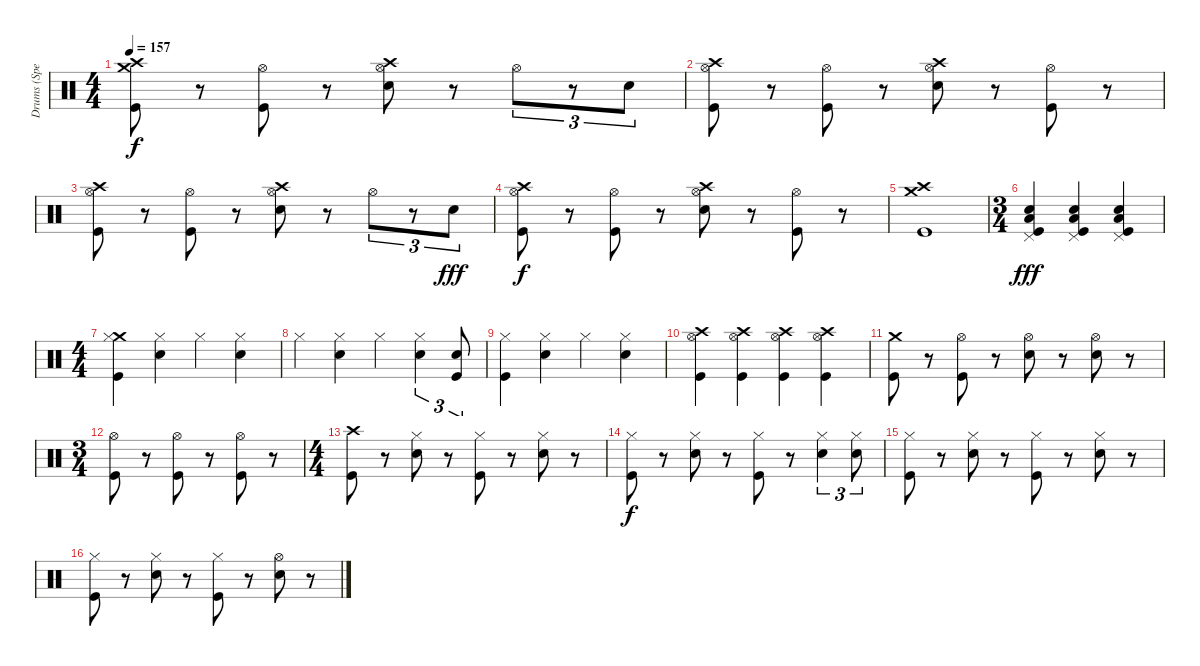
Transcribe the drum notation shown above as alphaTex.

\track ("Drums (Spencer Smith)" "Drums (Spe") {instrument percussion}
\staff {score}
\articulation defaults
\ts (4 4)
\tempo 157
\clef neutral
\ks c
("Crash medium (hit)" "Crash high (hit)" "Kick (hit)").8{dy f} r.8 ("Hi-Hat (open)" "Kick (hit)").8 r.8 ("Hi-Hat (open)" "Crash high (hit)" "Electric Snare (hit)").8 r.8 "Hi-Hat (open)".8{tu (3 2)} r.8{tu (3 2)} "Electric Snare (hit)".8{tu (3 2)} |
("Hi-Hat (open)" "Crash high (hit)" "Kick (hit)").8 r.8 ("Hi-Hat (open)" "Kick (hit)").8 r.8 ("Hi-Hat (open)" "Crash high (hit)" "Electric Snare (hit)").8 r.8 ("Hi-Hat (open)" "Kick (hit)").8 r.8 |
("Hi-Hat (open)" "Crash high (hit)" "Kick (hit)").8 r.8 ("Hi-Hat (open)" "Kick (hit)").8 r.8 ("Hi-Hat (open)" "Crash high (hit)" "Electric Snare (hit)").8 r.8 "Hi-Hat (open)".8{tu (3 2)} r.8{tu (3 2)} "Electric Snare (hit)".8{tu (3 2) dy fff} |
("Hi-Hat (open)" "Crash high (hit)" "Kick (hit)").8{dy f} r.8 ("Hi-Hat (open)" "Kick (hit)").8 r.8 ("Hi-Hat (open)" "Crash high (hit)" "Electric Snare (hit)").8 r.8 ("Hi-Hat (open)" "Kick (hit)").8 r.8 |
("Crash medium (hit)" "Crash high (hit)" "Kick (hit)").1 |
\ts (3 4)
("Low Floor Tom (hit)" "Electric Snare (hit)" "Kick (hit)" "Pedal Hi-Hat (hit)").4{dy fff} ("Low Floor Tom (hit)" "Electric Snare (hit)" "Kick (hit)" "Pedal Hi-Hat (hit)").4 ("Low Floor Tom (hit)" "Electric Snare (hit)" "Kick (hit)" "Pedal Hi-Hat (hit)").4 |
\ts (4 4)
("Crash medium (hit)" "Hi-Hat (closed)" "Kick (hit)").4 ("Hi-Hat (closed)" "Electric Snare (hit)").4 "Hi-Hat (closed)".4 ("Hi-Hat (closed)" "Electric Snare (hit)").4 |
"Hi-Hat (closed)".4 ("Hi-Hat (closed)" "Electric Snare (hit)").4 "Hi-Hat (closed)".4 ("Hi-Hat (closed)" "Electric Snare (hit)").4{tu (3 2)} ("Electric Snare (hit)" "Kick (hit)").8{tu (3 2)} |
("Hi-Hat (closed)" "Kick (hit)").4 ("Hi-Hat (closed)" "Electric Snare (hit)").4 "Hi-Hat (closed)".4 ("Hi-Hat (closed)" "Electric Snare (hit)").4 |
("Hi-Hat (open)" "Crash high (hit)" "Kick (hit)").4 ("Hi-Hat (open)" "Crash high (hit)" "Kick (hit)").4 ("Hi-Hat (open)" "Crash high (hit)" "Kick (hit)").4 ("Hi-Hat (open)" "Crash high (hit)" "Kick (hit)").4 |
("Crash medium (hit)" "Kick (hit)").8 r.8 ("Hi-Hat (open)" "Kick (hit)").8 r.8 ("Hi-Hat (open)" "Electric Snare (hit)").8 r.8 ("Hi-Hat (open)" "Electric Snare (hit)").8 r.8 |
\ts (3 4)
("Hi-Hat (open)" "Kick (hit)").8 r.8 ("Hi-Hat (open)" "Kick (hit)").8 r.8 ("Hi-Hat (open)" "Kick (hit)").8 r.8 |
\ts (4 4)
("Crash high (hit)" "Kick (hit)").8 r.8 ("Hi-Hat (closed)" "Electric Snare (hit)").8 r.8 ("Hi-Hat (closed)" "Kick (hit)").8 r.8 ("Hi-Hat (closed)" "Electric Snare (hit)").8 r.8 |
("Hi-Hat (closed)" "Kick (hit)").8{dy f} r.8 ("Hi-Hat (closed)" "Electric Snare (hit)").8 r.8 ("Hi-Hat (closed)" "Kick (hit)").8 r.8 ("Hi-Hat (closed)" "Electric Snare (hit)").4{tu (3 2)} ("Hi-Hat (closed)" "Electric Snare (hit)").8{tu (3 2)} |
("Hi-Hat (closed)" "Kick (hit)").8 r.8 ("Hi-Hat (closed)" "Electric Snare (hit)").8 r.8 ("Hi-Hat (closed)" "Kick (hit)").8 r.8 ("Hi-Hat (closed)" "Electric Snare (hit)").8 r.8 |
("Hi-Hat (closed)" "Kick (hit)").8 r.8 ("Hi-Hat (closed)" "Electric Snare (hit)").8 r.8 ("Hi-Hat (closed)" "Kick (hit)").8 r.8 ("Hi-Hat (open)" "Electric Snare (hit)").8 r.8
